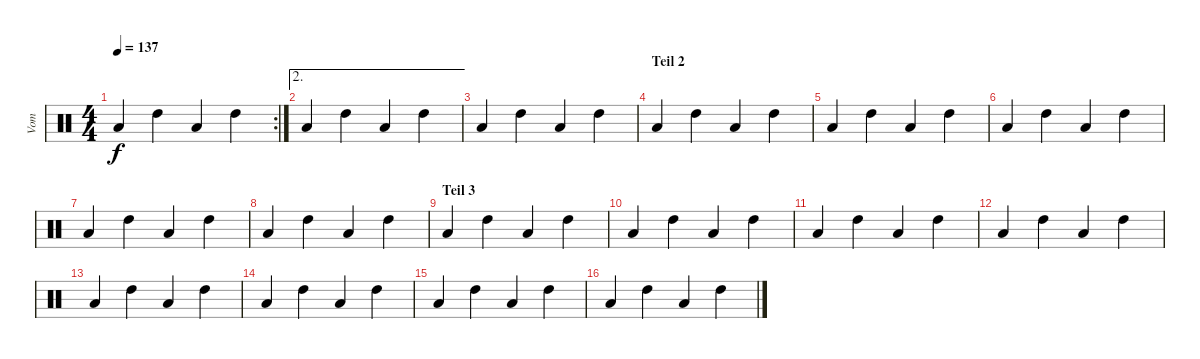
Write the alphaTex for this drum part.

\track ("Vom" "Vom") {instrument percussion}
\staff {score}
\articulation defaults
\rc 2
\ts (4 4)
\tempo 137
\clef neutral
\ks c "Low Tom (hit)".4{dy f} "High Tom (hit)".4 "Low Tom (hit)".4 "High Tom (hit)".4
|
\ae 2 "Low Tom (hit)".4 "High Tom (hit)".4 "Low Tom (hit)".4 "High Tom (hit)".4
|
"Low Tom (hit)".4 "High Tom (hit)".4 "Low Tom (hit)".4 "High Tom (hit)".4 |
\section ("" "Teil 2")
"Low Tom (hit)".4 "High Tom (hit)".4 "Low Tom (hit)".4 "High Tom (hit)".4 |
"Low Tom (hit)".4 "High Tom (hit)".4 "Low Tom (hit)".4 "High Tom (hit)".4 |
"Low Tom (hit)".4 "High Tom (hit)".4 "Low Tom (hit)".4 "High Tom (hit)".4 |
"Low Tom (hit)".4 "High Tom (hit)".4 "Low Tom (hit)".4 "High Tom (hit)".4 |
"Low Tom (hit)".4 "High Tom (hit)".4 "Low Tom (hit)".4 "High Tom (hit)".4 |
\section ("" "Teil 3")
"Low Tom (hit)".4 "High Tom (hit)".4 "Low Tom (hit)".4 "High Tom (hit)".4 |
"Low Tom (hit)".4 "High Tom (hit)".4 "Low Tom (hit)".4 "High Tom (hit)".4 |
"Low Tom (hit)".4 "High Tom (hit)".4 "Low Tom (hit)".4 "High Tom (hit)".4 |
"Low Tom (hit)".4 "High Tom (hit)".4 "Low Tom (hit)".4 "High Tom (hit)".4 |
"Low Tom (hit)".4 "High Tom (hit)".4 "Low Tom (hit)".4 "High Tom (hit)".4 |
"Low Tom (hit)".4 "High Tom (hit)".4 "Low Tom (hit)".4 "High Tom (hit)".4 |
"Low Tom (hit)".4 "High Tom (hit)".4 "Low Tom (hit)".4 "High Tom (hit)".4 |
"Low Tom (hit)".4 "High Tom (hit)".4 "Low Tom (hit)".4 "High Tom (hit)".4
